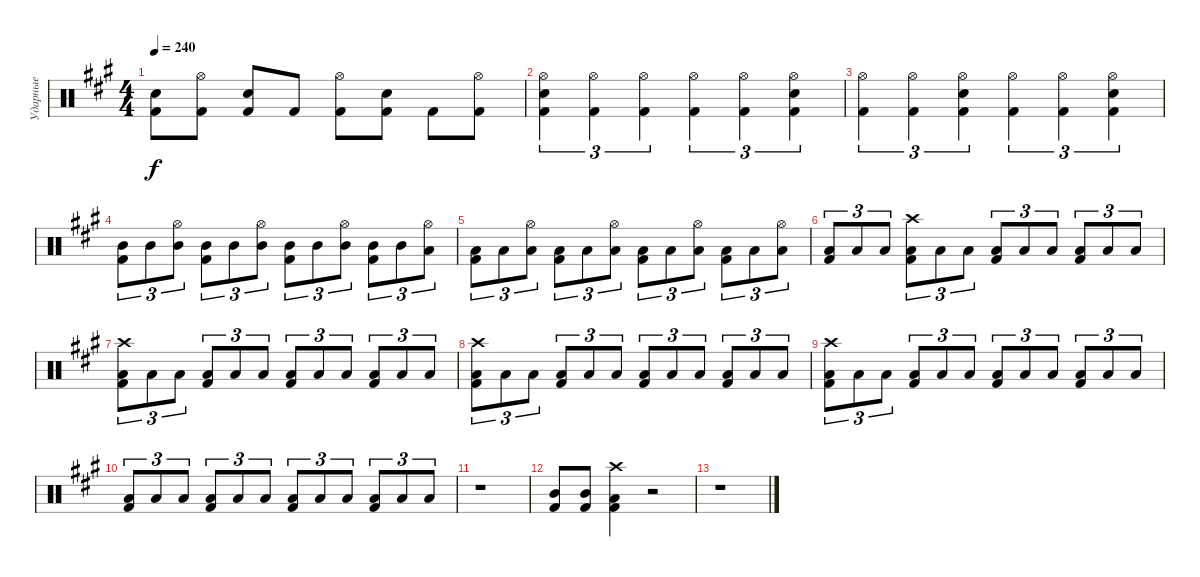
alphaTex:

\track ("Ударные" "Ударные") {instrument percussion}
\staff {score}
\articulation defaults
\ts (4 4)
\tempo 240
\clef neutral
\ks a
("Kick (hit) 2" "Snare (hit) 2").8{dy f} ("Kick (hit) 2" "Hi-Hat (open)").8 ("Kick (hit) 2" "Snare (hit) 2").8 "Kick (hit) 2".8 ("Kick (hit) 2" "Hi-Hat (open)").8 ("Kick (hit) 2" "Snare (hit) 2").8 "Kick (hit) 2".8 ("Kick (hit) 2" "Hi-Hat (open)").8 |
("Kick (hit) 2" "Hi-Hat (open)" "Snare (hit) 2").4{tu (3 2)} ("Kick (hit) 2" "Hi-Hat (open)").4{tu (3 2)} ("Kick (hit) 2" "Hi-Hat (open)").4{tu (3 2)} ("Kick (hit) 2" "Hi-Hat (open)").4{tu (3 2)} ("Kick (hit) 2" "Hi-Hat (open)").4{tu (3 2)} ("Kick (hit) 2" "Hi-Hat (open)" "Snare (hit) 2").4{tu (3 2)} |
("Kick (hit) 2" "Hi-Hat (open)").4{tu (3 2)} ("Kick (hit) 2" "Hi-Hat (open)").4{tu (3 2)} ("Kick (hit) 2" "Hi-Hat (open)" "Snare (hit) 2").4{tu (3 2)} ("Kick (hit) 2" "Hi-Hat (open)").4{tu (3 2)} ("Kick (hit) 2" "Hi-Hat (open)").4{tu (3 2)} ("Kick (hit) 2" "Hi-Hat (open)" "Snare (hit) 2").4{tu (3 2)} |
("Mid Tom (hit)" "Kick (hit) 2").8{tu (3 2)} "Mid Tom (hit)".8{tu (3 2)} ("Mid Tom (hit)" "Hi-Hat (open)").8{tu (3 2)} ("Mid Tom (hit)" "Kick (hit) 2").8{tu (3 2)} "Mid Tom (hit)".8{tu (3 2)} ("Mid Tom (hit)" "Hi-Hat (open)").8{tu (3 2)} ("Mid Tom (hit)" "Kick (hit) 2").8{tu (3 2)} "Mid Tom (hit)".8{tu (3 2)} ("Mid Tom (hit)" "Hi-Hat (open)").8{tu (3 2)} ("Mid Tom (hit)" "Kick (hit) 2").8{tu (3 2)} "Mid Tom (hit)".8{tu (3 2)} ("Low Tom (hit)" "Hi-Hat (open)").8{tu (3 2)} |
("Low Tom (hit)" "Kick (hit) 2").8{tu (3 2)} "Low Tom (hit)".8{tu (3 2)} ("Low Tom (hit)" "Hi-Hat (open)").8{tu (3 2)} ("Low Tom (hit)" "Kick (hit) 2").8{tu (3 2)} "Low Tom (hit)".8{tu (3 2)} ("Low Tom (hit)" "Hi-Hat (open)").8{tu (3 2)} ("Low Tom (hit)" "Kick (hit) 2").8{tu (3 2)} "Low Tom (hit)".8{tu (3 2)} ("Low Tom (hit)" "Hi-Hat (open)").8{tu (3 2)} ("Low Tom (hit)" "Kick (hit) 2").8{tu (3 2)} "Low Tom (hit)".8{tu (3 2)} ("Low Tom (hit)" "Hi-Hat (open)").8{tu (3 2)} |
("Low Floor Tom (hit)" "Kick (hit) 2").8{tu (3 2)} "Low Floor Tom (hit)".8{tu (3 2)} "Low Floor Tom (hit)".8{tu (3 2)} ("Low Floor Tom (hit)" "Kick (hit) 2" "Crash high (hit)").8{tu (3 2)} "Low Floor Tom (hit)".8{tu (3 2)} "Low Floor Tom (hit)".8{tu (3 2)} ("Low Floor Tom (hit)" "Kick (hit) 2").8{tu (3 2)} "Low Floor Tom (hit)".8{tu (3 2)} "Low Floor Tom (hit)".8{tu (3 2)} ("Low Floor Tom (hit)" "Kick (hit) 2").8{tu (3 2)} "Low Floor Tom (hit)".8{tu (3 2)} "Low Floor Tom (hit)".8{tu (3 2)} |
("Low Floor Tom (hit)" "Kick (hit) 2" "Crash high (hit)").8{tu (3 2)} "Low Floor Tom (hit)".8{tu (3 2)} "Low Floor Tom (hit)".8{tu (3 2)} ("Low Floor Tom (hit)" "Kick (hit) 2").8{tu (3 2)} "Low Floor Tom (hit)".8{tu (3 2)} "Low Floor Tom (hit)".8{tu (3 2)} ("Low Floor Tom (hit)" "Kick (hit) 2").8{tu (3 2)} "Low Floor Tom (hit)".8{tu (3 2)} "Low Floor Tom (hit)".8{tu (3 2)} ("Low Floor Tom (hit)" "Kick (hit) 2").8{tu (3 2)} "Low Floor Tom (hit)".8{tu (3 2)} "Low Floor Tom (hit)".8{tu (3 2)} |
("Low Floor Tom (hit)" "Kick (hit) 2" "Crash high (hit)").8{tu (3 2)} "Low Floor Tom (hit)".8{tu (3 2)} "Low Floor Tom (hit)".8{tu (3 2)} ("Low Floor Tom (hit)" "Kick (hit) 2").8{tu (3 2)} "Low Floor Tom (hit)".8{tu (3 2)} "Low Floor Tom (hit)".8{tu (3 2)} ("Low Floor Tom (hit)" "Kick (hit) 2").8{tu (3 2)} "Low Floor Tom (hit)".8{tu (3 2)} "Low Floor Tom (hit)".8{tu (3 2)} ("Low Floor Tom (hit)" "Kick (hit) 2").8{tu (3 2)} "Low Floor Tom (hit)".8{tu (3 2)} "Low Floor Tom (hit)".8{tu (3 2)} |
("Low Floor Tom (hit)" "Kick (hit) 2" "Crash high (hit)").8{tu (3 2)} "Low Floor Tom (hit)".8{tu (3 2)} "Low Floor Tom (hit)".8{tu (3 2)} ("Low Floor Tom (hit)" "Kick (hit) 2").8{tu (3 2)} "Low Floor Tom (hit)".8{tu (3 2)} "Low Floor Tom (hit)".8{tu (3 2)} ("Low Floor Tom (hit)" "Kick (hit) 2").8{tu (3 2)} "Low Floor Tom (hit)".8{tu (3 2)} "Low Floor Tom (hit)".8{tu (3 2)} ("Low Floor Tom (hit)" "Kick (hit) 2").8{tu (3 2)} "Low Floor Tom (hit)".8{tu (3 2)} "Low Floor Tom (hit)".8{tu (3 2)} |
("Low Floor Tom (hit)" "Kick (hit) 2").8{tu (3 2)} "Low Floor Tom (hit)".8{tu (3 2)} "Low Floor Tom (hit)".8{tu (3 2)} ("Low Floor Tom (hit)" "Kick (hit) 2").8{tu (3 2)} "Low Floor Tom (hit)".8{tu (3 2)} "Low Floor Tom (hit)".8{tu (3 2)} ("Low Floor Tom (hit)" "Kick (hit) 2").8{tu (3 2)} "Low Floor Tom (hit)".8{tu (3 2)} "Low Floor Tom (hit)".8{tu (3 2)} ("Low Floor Tom (hit)" "Kick (hit) 2").8{tu (3 2)} "Low Floor Tom (hit)".8{tu (3 2)} "Low Floor Tom (hit)".8{tu (3 2)} |
r.1 |
("Kick (hit) 2" "Mid Tom (hit)").8 ("Kick (hit) 2" "Mid Tom (hit)").8 ("Kick (hit) 2" "Low Tom (hit)" "Crash high (hit)").4 r.2 |
r.1
